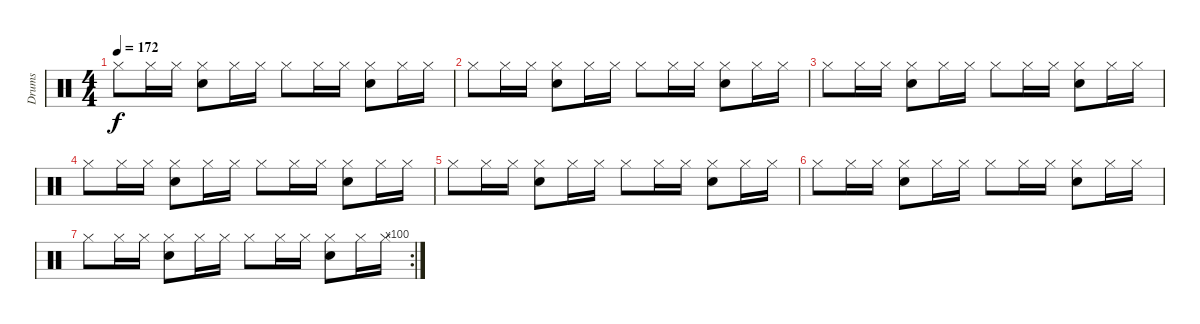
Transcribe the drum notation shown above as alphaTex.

\track ("Drums" "Drums") {instrument percussion}
\staff {score}
\articulation defaults
\ts (4 4)
\tempo 172
\clef neutral
\ks c "Hi-Hat (closed)".8{dy f} "Hi-Hat (closed)".16 "Hi-Hat (closed)".16
("Hi-Hat (closed)" "Snare (hit) 2").8 "Hi-Hat (closed)".16 "Hi-Hat (closed)".16 "Hi-Hat (closed)".8 "Hi-Hat (closed)".16 "Hi-Hat (closed)".16 ("Hi-Hat (closed)" "Snare (hit) 2").8 "Hi-Hat (closed)".16 "Hi-Hat (closed)".16 |
"Hi-Hat (closed)".8 "Hi-Hat (closed)".16 "Hi-Hat (closed)".16 ("Hi-Hat (closed)" "Snare (hit) 2").8 "Hi-Hat (closed)".16 "Hi-Hat (closed)".16 "Hi-Hat (closed)".8 "Hi-Hat (closed)".16 "Hi-Hat (closed)".16 ("Hi-Hat (closed)" "Snare (hit) 2").8 "Hi-Hat (closed)".16 "Hi-Hat (closed)".16 |
"Hi-Hat (closed)".8 "Hi-Hat (closed)".16 "Hi-Hat (closed)".16 ("Hi-Hat (closed)" "Snare (hit) 2").8 "Hi-Hat (closed)".16 "Hi-Hat (closed)".16 "Hi-Hat (closed)".8 "Hi-Hat (closed)".16 "Hi-Hat (closed)".16 ("Hi-Hat (closed)" "Snare (hit) 2").8 "Hi-Hat (closed)".16 "Hi-Hat (closed)".16 |
"Hi-Hat (closed)".8 "Hi-Hat (closed)".16 "Hi-Hat (closed)".16 ("Hi-Hat (closed)" "Snare (hit) 2").8 "Hi-Hat (closed)".16 "Hi-Hat (closed)".16 "Hi-Hat (closed)".8 "Hi-Hat (closed)".16 "Hi-Hat (closed)".16 ("Hi-Hat (closed)" "Snare (hit) 2").8 "Hi-Hat (closed)".16 "Hi-Hat (closed)".16 |
"Hi-Hat (closed)".8 "Hi-Hat (closed)".16 "Hi-Hat (closed)".16 ("Hi-Hat (closed)" "Snare (hit) 2").8 "Hi-Hat (closed)".16 "Hi-Hat (closed)".16 "Hi-Hat (closed)".8 "Hi-Hat (closed)".16 "Hi-Hat (closed)".16 ("Hi-Hat (closed)" "Snare (hit) 2").8 "Hi-Hat (closed)".16 "Hi-Hat (closed)".16 |
"Hi-Hat (closed)".8 "Hi-Hat (closed)".16 "Hi-Hat (closed)".16 ("Hi-Hat (closed)" "Snare (hit) 2").8 "Hi-Hat (closed)".16 "Hi-Hat (closed)".16 "Hi-Hat (closed)".8 "Hi-Hat (closed)".16 "Hi-Hat (closed)".16 ("Hi-Hat (closed)" "Snare (hit) 2").8 "Hi-Hat (closed)".16 "Hi-Hat (closed)".16 |
\rc 100 "Hi-Hat (closed)".8 "Hi-Hat (closed)".16 "Hi-Hat (closed)".16
("Hi-Hat (closed)" "Snare (hit) 2").8 "Hi-Hat (closed)".16 "Hi-Hat (closed)".16 "Hi-Hat (closed)".8 "Hi-Hat (closed)".16 "Hi-Hat (closed)".16 ("Hi-Hat (closed)" "Snare (hit) 2").8 "Hi-Hat (closed)".16 "Hi-Hat (closed)".16
